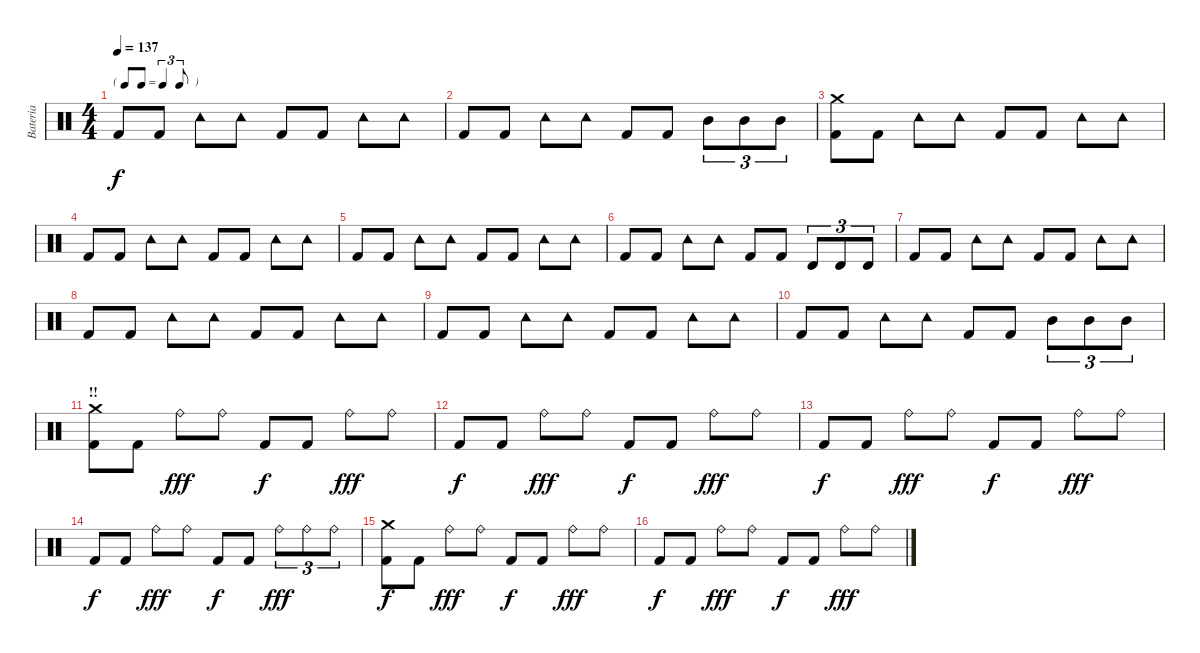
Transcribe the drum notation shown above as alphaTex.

\track ("Bateria" "Bateria") {instrument percussion}
\staff {score}
\articulation defaults
\ts (4 4)
\tf triplet8th
\tempo 137
\clef neutral
\ks c "Kick (hit) 2".8{dy f} "Kick (hit) 2".8 "Tambourine (hit)".8 "Tambourine (hit)".8 "Kick (hit) 2".8 "Kick (hit) 2".8 "Tambourine (hit)".8 "Tambourine (hit)".8
|
"Kick (hit) 2".8 "Kick (hit) 2".8 "Tambourine (hit)".8 "Tambourine (hit)".8 "Kick (hit) 2".8 "Kick (hit) 2".8 "Mid Tom (hit)".8{tu (3 2)} "Mid Tom (hit)".8{tu (3 2)} "Mid Tom (hit)".8{tu (3 2)} |
("Kick (hit) 2" "Crash medium (hit)").8 "Kick (hit) 2".8 "Tambourine (hit)".8 "Tambourine (hit)".8 "Kick (hit) 2".8 "Kick (hit) 2".8 "Tambourine (hit)".8 "Tambourine (hit)".8 |
"Kick (hit) 2".8 "Kick (hit) 2".8 "Tambourine (hit)".8 "Tambourine (hit)".8 "Kick (hit) 2".8 "Kick (hit) 2".8 "Tambourine (hit)".8 "Tambourine (hit)".8 |
"Kick (hit) 2".8 "Kick (hit) 2".8 "Tambourine (hit)".8 "Tambourine (hit)".8 "Kick (hit) 2".8 "Kick (hit) 2".8 "Tambourine (hit)".8 "Tambourine (hit)".8 |
"Kick (hit) 2".8 "Kick (hit) 2".8 "Tambourine (hit)".8 "Tambourine (hit)".8 "Kick (hit) 2".8 "Kick (hit) 2".8 "Timbale high (hit)".8{tu (3 2)} "Timbale high (hit)".8{tu (3 2)} "Timbale high (hit)".8{tu (3 2)} |
"Kick (hit) 2".8 "Kick (hit) 2".8 "Tambourine (hit)".8 "Tambourine (hit)".8 "Kick (hit) 2".8 "Kick (hit) 2".8 "Tambourine (hit)".8 "Tambourine (hit)".8 |
"Kick (hit) 2".8 "Kick (hit) 2".8 "Tambourine (hit)".8 "Tambourine (hit)".8 "Kick (hit) 2".8 "Kick (hit) 2".8 "Tambourine (hit)".8 "Tambourine (hit)".8 |
"Kick (hit) 2".8 "Kick (hit) 2".8 "Tambourine (hit)".8 "Tambourine (hit)".8 "Kick (hit) 2".8 "Kick (hit) 2".8 "Tambourine (hit)".8 "Tambourine (hit)".8 |
"Kick (hit) 2".8 "Kick (hit) 2".8 "Tambourine (hit)".8 "Tambourine (hit)".8 "Kick (hit) 2".8 "Kick (hit) 2".8 "Mid Tom (hit)".8{tu (3 2)} "Mid Tom (hit)".8{tu (3 2)} "Mid Tom (hit)".8{tu (3 2)} |
\section ("" "!!")
("Kick (hit) 2" "Crash medium (hit)").8 "Kick (hit) 2".8 "Ride (bell)".8{dy fff} "Ride (bell)".8 "Kick (hit) 2".8{dy f} "Kick (hit) 2".8 "Ride (bell)".8{dy fff} "Ride (bell)".8 |
"Kick (hit) 2".8{dy f} "Kick (hit) 2".8 "Ride (bell)".8{dy fff} "Ride (bell)".8 "Kick (hit) 2".8{dy f} "Kick (hit) 2".8 "Ride (bell)".8{dy fff} "Ride (bell)".8 |
"Kick (hit) 2".8{dy f} "Kick (hit) 2".8 "Ride (bell)".8{dy fff} "Ride (bell)".8 "Kick (hit) 2".8{dy f} "Kick (hit) 2".8 "Ride (bell)".8{dy fff} "Ride (bell)".8 |
"Kick (hit) 2".8{dy f} "Kick (hit) 2".8 "Ride (bell)".8{dy fff} "Ride (bell)".8 "Kick (hit) 2".8{dy f} "Kick (hit) 2".8 "Ride (bell)".8{tu (3 2) dy fff} "Ride (bell)".8{tu (3 2)} "Ride (bell)".8{tu (3 2)} |
("Kick (hit) 2" "Crash medium (hit)").8{dy f} "Kick (hit) 2".8 "Ride (bell)".8{dy fff} "Ride (bell)".8 "Kick (hit) 2".8{dy f} "Kick (hit) 2".8 "Ride (bell)".8{dy fff} "Ride (bell)".8 |
"Kick (hit) 2".8{dy f} "Kick (hit) 2".8 "Ride (bell)".8{dy fff} "Ride (bell)".8 "Kick (hit) 2".8{dy f} "Kick (hit) 2".8 "Ride (bell)".8{dy fff} "Ride (bell)".8
